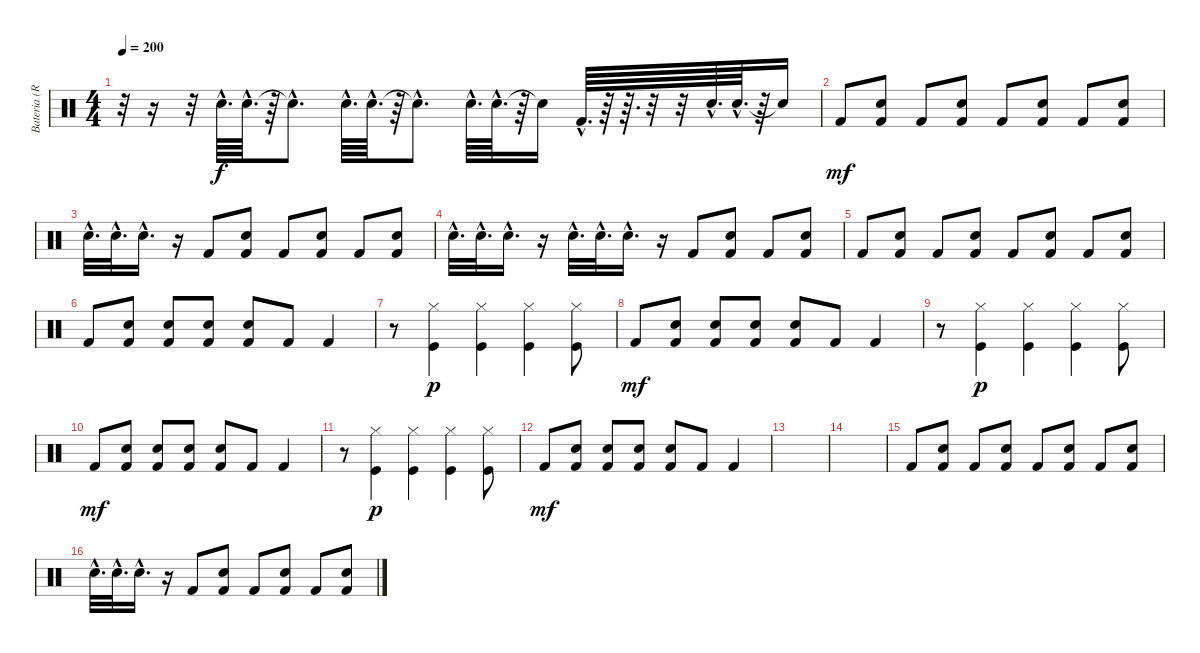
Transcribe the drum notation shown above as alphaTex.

\track ("Bateria (Ray)" "Bateria (R") {instrument percussion}
\staff {score}
\articulation defaults
\ts (4 4)
\tempo 200
\clef neutral
\ks c
r.32{dy f} r.16 r.32 "Electric Snare (hit)"{hac}.64{d} "Electric Snare (hit)"{hac}.64{d} r.64 "Snare (hit)"{hac t}.8{d} "Electric Snare (hit)"{hac}.64{d} "Electric Snare (hit)"{hac}.64{d} r.64 "Electric Snare (hit)"{hac t}.8{d} "Electric Snare (hit)"{hac}.64{d} "Electric Snare (hit)"{hac}.64{d} r.64 "Electric Snare (hit)"{t}.16 "Kick (hit) 2"{hac}.64{d} r.64 r.64{d} r.32 r.32 "Electric Snare (hit)"{hac}.64{d} "Electric Snare (hit)"{hac}.64{d} r.64 "Electric Snare (hit)"{t}.16 |
"Kick (hit) 2".8{dy mf} ("Electric Snare (hit)" "Kick (hit) 2").8 "Kick (hit) 2".8 ("Electric Snare (hit)" "Kick (hit) 2").8 "Kick (hit) 2".8 ("Electric Snare (hit)" "Kick (hit) 2").8 "Kick (hit) 2".8 ("Electric Snare (hit)" "Kick (hit) 2").8 |
"Electric Snare (hit)"{hac}.32{d} "Electric Snare (hit)"{hac}.32{d} "Electric Snare (hit)"{hac}.16{d} r.16 "Kick (hit) 2".8 ("Electric Snare (hit)" "Kick (hit) 2").8 "Kick (hit) 2".8 ("Electric Snare (hit)" "Kick (hit) 2").8 "Kick (hit) 2".8 ("Electric Snare (hit)" "Kick (hit) 2").8 |
"Electric Snare (hit)"{hac}.32{d} "Electric Snare (hit)"{hac}.32{d} "Electric Snare (hit)"{hac}.16{d} r.16 "Electric Snare (hit)"{hac}.32{d} "Electric Snare (hit)"{hac}.32{d} "Electric Snare (hit)"{hac}.16{d} r.16 "Kick (hit) 2".8 ("Electric Snare (hit)" "Kick (hit) 2").8 "Kick (hit) 2".8 ("Electric Snare (hit)" "Kick (hit) 2").8 |
"Kick (hit) 2".8 ("Electric Snare (hit)" "Kick (hit) 2").8 "Kick (hit) 2".8 ("Electric Snare (hit)" "Kick (hit) 2").8 "Kick (hit) 2".8 ("Electric Snare (hit)" "Kick (hit) 2").8 "Kick (hit) 2".8 ("Electric Snare (hit)" "Kick (hit) 2").8 |
"Kick (hit) 2".8 ("Electric Snare (hit)" "Kick (hit) 2").8 ("Electric Snare (hit)" "Kick (hit) 2").8 ("Electric Snare (hit)" "Kick (hit) 2").8 ("Electric Snare (hit)" "Kick (hit) 2").8 "Kick (hit) 2".8 "Kick (hit) 2".4 |
r.8 ("Kick (hit)" "Hi-Hat (closed)").4{dy p} ("Kick (hit)" "Hi-Hat (closed)").4 ("Kick (hit)" "Hi-Hat (closed)").4 ("Kick (hit)" "Hi-Hat (closed)").8 |
"Kick (hit) 2".8{dy mf} ("Electric Snare (hit)" "Kick (hit) 2").8 ("Electric Snare (hit)" "Kick (hit) 2").8 ("Electric Snare (hit)" "Kick (hit) 2").8 ("Electric Snare (hit)" "Kick (hit) 2").8 "Kick (hit) 2".8 "Kick (hit) 2".4 |
r.8 ("Kick (hit)" "Hi-Hat (closed)").4{dy p} ("Kick (hit)" "Hi-Hat (closed)").4 ("Kick (hit)" "Hi-Hat (closed)").4 ("Kick (hit)" "Hi-Hat (closed)").8 |
"Kick (hit) 2".8{dy mf} ("Electric Snare (hit)" "Kick (hit) 2").8 ("Electric Snare (hit)" "Kick (hit) 2").8 ("Electric Snare (hit)" "Kick (hit) 2").8 ("Electric Snare (hit)" "Kick (hit) 2").8 "Kick (hit) 2".8 "Kick (hit) 2".4 |
r.8 ("Kick (hit)" "Hi-Hat (closed)").4{dy p} ("Kick (hit)" "Hi-Hat (closed)").4 ("Kick (hit)" "Hi-Hat (closed)").4 ("Kick (hit)" "Hi-Hat (closed)").8 |
"Kick (hit) 2".8{dy mf} ("Electric Snare (hit)" "Kick (hit) 2").8 ("Electric Snare (hit)" "Kick (hit) 2").8 ("Electric Snare (hit)" "Kick (hit) 2").8 ("Electric Snare (hit)" "Kick (hit) 2").8 "Kick (hit) 2".8 "Kick (hit) 2".4 |
|
|
"Kick (hit) 2".8 ("Electric Snare (hit)" "Kick (hit) 2").8 "Kick (hit) 2".8 ("Electric Snare (hit)" "Kick (hit) 2").8 "Kick (hit) 2".8 ("Electric Snare (hit)" "Kick (hit) 2").8 "Kick (hit) 2".8 ("Electric Snare (hit)" "Kick (hit) 2").8 |
"Electric Snare (hit)"{hac}.32{d} "Electric Snare (hit)"{hac}.32{d} "Electric Snare (hit)"{hac}.16{d} r.16 "Kick (hit) 2".8 ("Electric Snare (hit)" "Kick (hit) 2").8 "Kick (hit) 2".8 ("Electric Snare (hit)" "Kick (hit) 2").8 "Kick (hit) 2".8 ("Electric Snare (hit)" "Kick (hit) 2").8
